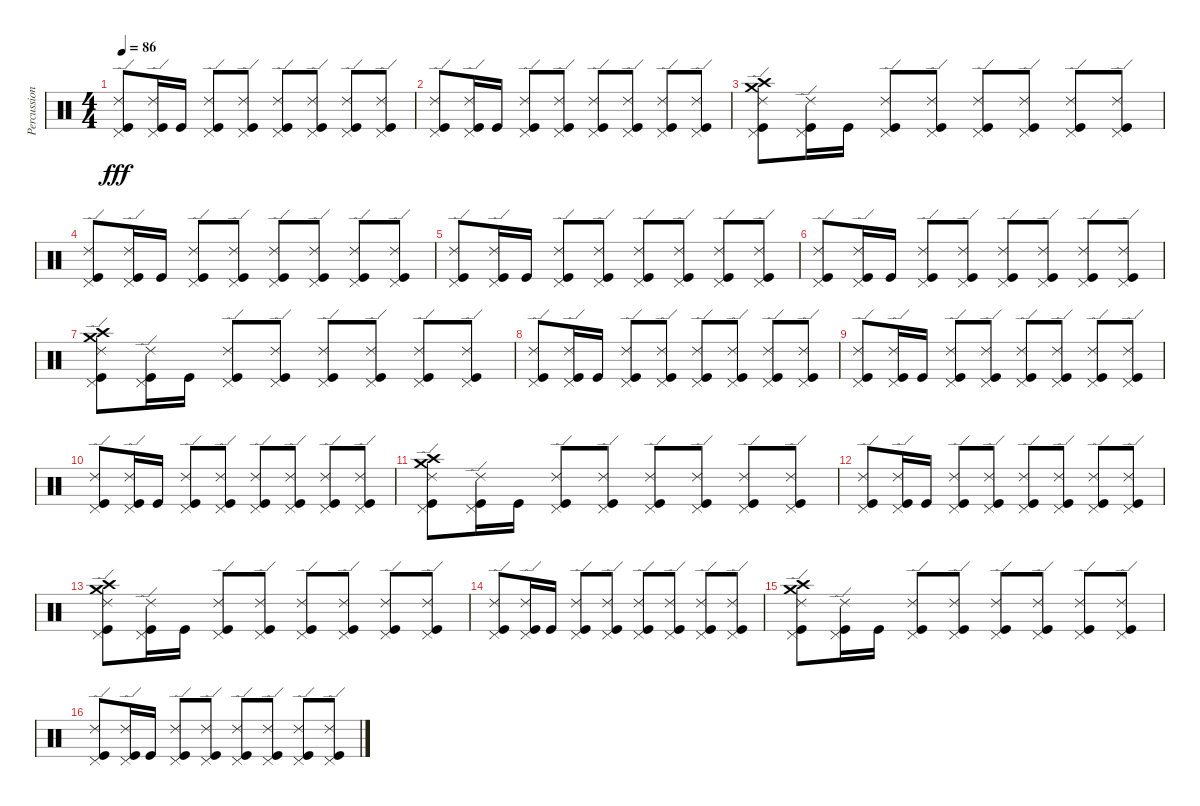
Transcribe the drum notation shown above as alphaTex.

\track ("Percussion" "Percussion") {instrument percussion}
\staff {score}
\articulation defaults
\ts (4 4)
\tempo 86
\clef neutral
\ks c
("Pedal Hi-Hat (hit)" "Ride (edge) 2" "Kick (hit)").8{dy fff} ("Pedal Hi-Hat (hit)" "Ride (edge) 2" "Kick (hit)").16 "Kick (hit)".16 ("Pedal Hi-Hat (hit)" "Ride (edge) 2" "Kick (hit)").8 ("Pedal Hi-Hat (hit)" "Ride (edge) 2" "Kick (hit)").8 ("Pedal Hi-Hat (hit)" "Ride (edge) 2" "Kick (hit)").8 ("Pedal Hi-Hat (hit)" "Ride (edge) 2" "Kick (hit)").8 ("Pedal Hi-Hat (hit)" "Ride (edge) 2" "Kick (hit)").8 ("Pedal Hi-Hat (hit)" "Ride (edge) 2" "Kick (hit)").8 |
("Pedal Hi-Hat (hit)" "Ride (edge) 2" "Kick (hit)").8 ("Pedal Hi-Hat (hit)" "Ride (edge) 2" "Kick (hit)").16 "Kick (hit)".16 ("Pedal Hi-Hat (hit)" "Ride (edge) 2" "Kick (hit)").8 ("Pedal Hi-Hat (hit)" "Ride (edge) 2" "Kick (hit)").8 ("Pedal Hi-Hat (hit)" "Ride (edge) 2" "Kick (hit)").8 ("Pedal Hi-Hat (hit)" "Ride (edge) 2" "Kick (hit)").8 ("Pedal Hi-Hat (hit)" "Ride (edge) 2" "Kick (hit)").8 ("Pedal Hi-Hat (hit)" "Ride (edge) 2" "Kick (hit)").8 |
("Kick (hit)" "Ride (edge) 2" "Pedal Hi-Hat (hit)" "Crash high (hit)" "Crash medium (hit)").8 ("Pedal Hi-Hat (hit)" "Ride (edge) 2" "Kick (hit)").16 "Kick (hit)".16 ("Pedal Hi-Hat (hit)" "Ride (edge) 2" "Kick (hit)").8 ("Ride (edge) 2" "Pedal Hi-Hat (hit)" "Kick (hit)").8 ("Pedal Hi-Hat (hit)" "Ride (edge) 2" "Kick (hit)").8 ("Pedal Hi-Hat (hit)" "Ride (edge) 2" "Kick (hit)").8 ("Pedal Hi-Hat (hit)" "Ride (edge) 2" "Kick (hit)").8 ("Pedal Hi-Hat (hit)" "Ride (edge) 2" "Kick (hit)").8 |
("Pedal Hi-Hat (hit)" "Ride (edge) 2" "Kick (hit)").8 ("Pedal Hi-Hat (hit)" "Ride (edge) 2" "Kick (hit)").16 "Kick (hit)".16 ("Pedal Hi-Hat (hit)" "Ride (edge) 2" "Kick (hit)").8 ("Pedal Hi-Hat (hit)" "Ride (edge) 2" "Kick (hit)").8 ("Pedal Hi-Hat (hit)" "Ride (edge) 2" "Kick (hit)").8 ("Pedal Hi-Hat (hit)" "Ride (edge) 2" "Kick (hit)").8 ("Pedal Hi-Hat (hit)" "Ride (edge) 2" "Kick (hit)").8 ("Pedal Hi-Hat (hit)" "Ride (edge) 2" "Kick (hit)").8 |
("Pedal Hi-Hat (hit)" "Ride (edge) 2" "Kick (hit)").8 ("Pedal Hi-Hat (hit)" "Ride (edge) 2" "Kick (hit)").16 "Kick (hit)".16 ("Pedal Hi-Hat (hit)" "Ride (edge) 2" "Kick (hit)").8 ("Pedal Hi-Hat (hit)" "Ride (edge) 2" "Kick (hit)").8 ("Pedal Hi-Hat (hit)" "Ride (edge) 2" "Kick (hit)").8 ("Pedal Hi-Hat (hit)" "Ride (edge) 2" "Kick (hit)").8 ("Pedal Hi-Hat (hit)" "Ride (edge) 2" "Kick (hit)").8 ("Pedal Hi-Hat (hit)" "Ride (edge) 2" "Kick (hit)").8 |
("Pedal Hi-Hat (hit)" "Ride (edge) 2" "Kick (hit)").8 ("Pedal Hi-Hat (hit)" "Ride (edge) 2" "Kick (hit)").16 "Kick (hit)".16 ("Pedal Hi-Hat (hit)" "Ride (edge) 2" "Kick (hit)").8 ("Pedal Hi-Hat (hit)" "Ride (edge) 2" "Kick (hit)").8 ("Pedal Hi-Hat (hit)" "Ride (edge) 2" "Kick (hit)").8 ("Pedal Hi-Hat (hit)" "Ride (edge) 2" "Kick (hit)").8 ("Pedal Hi-Hat (hit)" "Ride (edge) 2" "Kick (hit)").8 ("Pedal Hi-Hat (hit)" "Ride (edge) 2" "Kick (hit)").8 |
("Crash medium (hit)" "Crash high (hit)" "Pedal Hi-Hat (hit)" "Ride (edge) 2" "Kick (hit)").8 ("Pedal Hi-Hat (hit)" "Ride (edge) 2" "Kick (hit)").16 "Kick (hit)".16 ("Pedal Hi-Hat (hit)" "Ride (edge) 2" "Kick (hit)").8 ("Pedal Hi-Hat (hit)" "Ride (edge) 2" "Kick (hit)").8 ("Pedal Hi-Hat (hit)" "Ride (edge) 2" "Kick (hit)").8 ("Pedal Hi-Hat (hit)" "Ride (edge) 2" "Kick (hit)").8 ("Pedal Hi-Hat (hit)" "Ride (edge) 2" "Kick (hit)").8 ("Pedal Hi-Hat (hit)" "Ride (edge) 2" "Kick (hit)").8 |
("Pedal Hi-Hat (hit)" "Ride (edge) 2" "Kick (hit)").8 ("Pedal Hi-Hat (hit)" "Ride (edge) 2" "Kick (hit)").16 "Kick (hit)".16 ("Pedal Hi-Hat (hit)" "Ride (edge) 2" "Kick (hit)").8 ("Pedal Hi-Hat (hit)" "Ride (edge) 2" "Kick (hit)").8 ("Pedal Hi-Hat (hit)" "Ride (edge) 2" "Kick (hit)").8 ("Pedal Hi-Hat (hit)" "Ride (edge) 2" "Kick (hit)").8 ("Pedal Hi-Hat (hit)" "Ride (edge) 2" "Kick (hit)").8 ("Pedal Hi-Hat (hit)" "Ride (edge) 2" "Kick (hit)").8 |
("Pedal Hi-Hat (hit)" "Ride (edge) 2" "Kick (hit)").8 ("Pedal Hi-Hat (hit)" "Ride (edge) 2" "Kick (hit)").16 "Kick (hit)".16 ("Pedal Hi-Hat (hit)" "Ride (edge) 2" "Kick (hit)").8 ("Pedal Hi-Hat (hit)" "Ride (edge) 2" "Kick (hit)").8 ("Pedal Hi-Hat (hit)" "Ride (edge) 2" "Kick (hit)").8 ("Pedal Hi-Hat (hit)" "Ride (edge) 2" "Kick (hit)").8 ("Pedal Hi-Hat (hit)" "Ride (edge) 2" "Kick (hit)").8 ("Pedal Hi-Hat (hit)" "Ride (edge) 2" "Kick (hit)").8 |
("Pedal Hi-Hat (hit)" "Ride (edge) 2" "Kick (hit)").8 ("Pedal Hi-Hat (hit)" "Ride (edge) 2" "Kick (hit)").16 "Kick (hit)".16 ("Pedal Hi-Hat (hit)" "Ride (edge) 2" "Kick (hit)").8 ("Pedal Hi-Hat (hit)" "Ride (edge) 2" "Kick (hit)").8 ("Pedal Hi-Hat (hit)" "Ride (edge) 2" "Kick (hit)").8 ("Pedal Hi-Hat (hit)" "Ride (edge) 2" "Kick (hit)").8 ("Pedal Hi-Hat (hit)" "Ride (edge) 2" "Kick (hit)").8 ("Pedal Hi-Hat (hit)" "Ride (edge) 2" "Kick (hit)").8 |
("Kick (hit)" "Ride (edge) 2" "Pedal Hi-Hat (hit)" "Crash high (hit)" "Crash medium (hit)").8 ("Pedal Hi-Hat (hit)" "Ride (edge) 2" "Kick (hit)").16 "Kick (hit)".16 ("Pedal Hi-Hat (hit)" "Ride (edge) 2" "Kick (hit)").8 ("Ride (edge) 2" "Pedal Hi-Hat (hit)" "Kick (hit)").8 ("Pedal Hi-Hat (hit)" "Ride (edge) 2" "Kick (hit)").8 ("Pedal Hi-Hat (hit)" "Ride (edge) 2" "Kick (hit)").8 ("Pedal Hi-Hat (hit)" "Ride (edge) 2" "Kick (hit)").8 ("Pedal Hi-Hat (hit)" "Ride (edge) 2" "Kick (hit)").8 |
("Pedal Hi-Hat (hit)" "Ride (edge) 2" "Kick (hit)").8 ("Pedal Hi-Hat (hit)" "Ride (edge) 2" "Kick (hit)").16 "Kick (hit)".16 ("Pedal Hi-Hat (hit)" "Ride (edge) 2" "Kick (hit)").8 ("Pedal Hi-Hat (hit)" "Ride (edge) 2" "Kick (hit)").8 ("Pedal Hi-Hat (hit)" "Ride (edge) 2" "Kick (hit)").8 ("Pedal Hi-Hat (hit)" "Ride (edge) 2" "Kick (hit)").8 ("Pedal Hi-Hat (hit)" "Ride (edge) 2" "Kick (hit)").8 ("Pedal Hi-Hat (hit)" "Ride (edge) 2" "Kick (hit)").8 |
("Pedal Hi-Hat (hit)" "Ride (edge) 2" "Kick (hit)" "Crash medium (hit)" "Crash high (hit)").8 ("Pedal Hi-Hat (hit)" "Ride (edge) 2" "Kick (hit)").16 "Kick (hit)".16 ("Pedal Hi-Hat (hit)" "Ride (edge) 2" "Kick (hit)").8 ("Pedal Hi-Hat (hit)" "Ride (edge) 2" "Kick (hit)").8 ("Pedal Hi-Hat (hit)" "Ride (edge) 2" "Kick (hit)").8 ("Pedal Hi-Hat (hit)" "Ride (edge) 2" "Kick (hit)").8 ("Pedal Hi-Hat (hit)" "Ride (edge) 2" "Kick (hit)").8 ("Pedal Hi-Hat (hit)" "Ride (edge) 2" "Kick (hit)").8 |
("Pedal Hi-Hat (hit)" "Ride (edge) 2" "Kick (hit)").8 ("Pedal Hi-Hat (hit)" "Ride (edge) 2" "Kick (hit)").16 "Kick (hit)".16 ("Pedal Hi-Hat (hit)" "Ride (edge) 2" "Kick (hit)").8 ("Pedal Hi-Hat (hit)" "Ride (edge) 2" "Kick (hit)").8 ("Pedal Hi-Hat (hit)" "Ride (edge) 2" "Kick (hit)").8 ("Pedal Hi-Hat (hit)" "Ride (edge) 2" "Kick (hit)").8 ("Pedal Hi-Hat (hit)" "Ride (edge) 2" "Kick (hit)").8 ("Pedal Hi-Hat (hit)" "Ride (edge) 2" "Kick (hit)").8 |
("Crash medium (hit)" "Crash high (hit)" "Pedal Hi-Hat (hit)" "Ride (edge) 2" "Kick (hit)").8 ("Pedal Hi-Hat (hit)" "Ride (edge) 2" "Kick (hit)").16 "Kick (hit)".16 ("Pedal Hi-Hat (hit)" "Ride (edge) 2" "Kick (hit)").8 ("Pedal Hi-Hat (hit)" "Ride (edge) 2" "Kick (hit)").8 ("Pedal Hi-Hat (hit)" "Ride (edge) 2" "Kick (hit)").8 ("Pedal Hi-Hat (hit)" "Ride (edge) 2" "Kick (hit)").8 ("Pedal Hi-Hat (hit)" "Ride (edge) 2" "Kick (hit)").8 ("Pedal Hi-Hat (hit)" "Ride (edge) 2" "Kick (hit)").8 |
("Pedal Hi-Hat (hit)" "Ride (edge) 2" "Kick (hit)").8 ("Pedal Hi-Hat (hit)" "Ride (edge) 2" "Kick (hit)").16 "Kick (hit)".16 ("Pedal Hi-Hat (hit)" "Ride (edge) 2" "Kick (hit)").8 ("Pedal Hi-Hat (hit)" "Ride (edge) 2" "Kick (hit)").8 ("Pedal Hi-Hat (hit)" "Ride (edge) 2" "Kick (hit)").8 ("Pedal Hi-Hat (hit)" "Ride (edge) 2" "Kick (hit)").8 ("Pedal Hi-Hat (hit)" "Ride (edge) 2" "Kick (hit)").8 ("Pedal Hi-Hat (hit)" "Ride (edge) 2" "Kick (hit)").8
